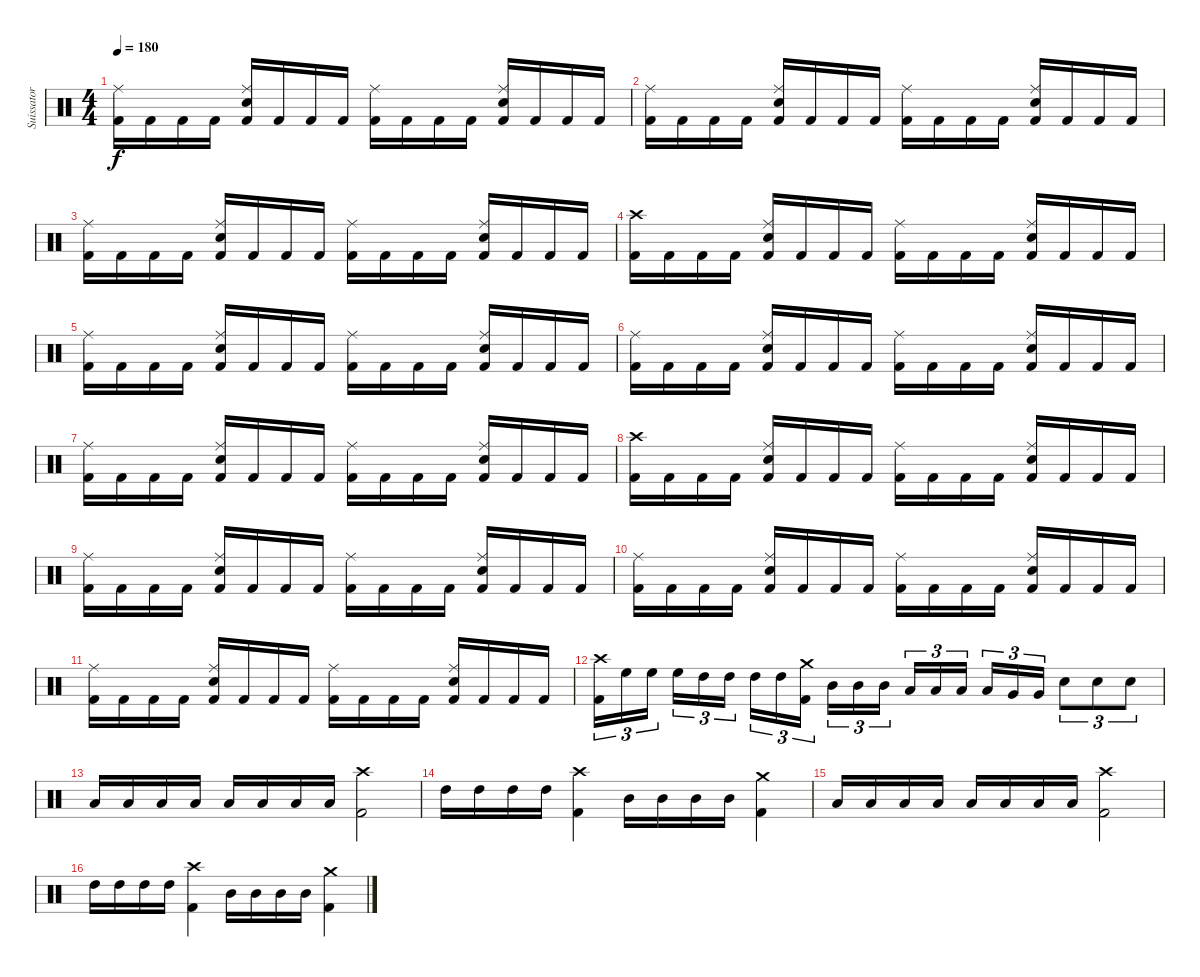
\track ("Suissator" "Suissator") {instrument percussion}
\staff {score}
\articulation defaults
\ts (4 4)
\tempo 180
\clef neutral
\ks c
("Kick (hit) 2" "Ride (middle)").16{dy f} "Kick (hit) 2".16 "Kick (hit) 2".16 "Kick (hit) 2".16 ("Kick (hit) 2" "Electric Snare (hit)" "Ride (middle)").16 "Kick (hit) 2".16 "Kick (hit) 2".16 "Kick (hit) 2".16 ("Kick (hit) 2" "Ride (middle)").16 "Kick (hit) 2".16 "Kick (hit) 2".16 "Kick (hit) 2".16 ("Kick (hit) 2" "Electric Snare (hit)" "Ride (middle)").16 "Kick (hit) 2".16 "Kick (hit) 2".16 "Kick (hit) 2".16 |
("Kick (hit) 2" "Ride (middle)").16 "Kick (hit) 2".16 "Kick (hit) 2".16 "Kick (hit) 2".16 ("Kick (hit) 2" "Electric Snare (hit)" "Ride (middle)").16 "Kick (hit) 2".16 "Kick (hit) 2".16 "Kick (hit) 2".16 ("Kick (hit) 2" "Ride (middle)").16 "Kick (hit) 2".16 "Kick (hit) 2".16 "Kick (hit) 2".16 ("Kick (hit) 2" "Electric Snare (hit)" "Ride (middle)").16 "Kick (hit) 2".16 "Kick (hit) 2".16 "Kick (hit) 2".16 |
("Kick (hit) 2" "Ride (middle)").16 "Kick (hit) 2".16 "Kick (hit) 2".16 "Kick (hit) 2".16 ("Kick (hit) 2" "Electric Snare (hit)" "Ride (middle)").16 "Kick (hit) 2".16 "Kick (hit) 2".16 "Kick (hit) 2".16 ("Kick (hit) 2" "Ride (middle)").16 "Kick (hit) 2".16 "Kick (hit) 2".16 "Kick (hit) 2".16 ("Kick (hit) 2" "Electric Snare (hit)" "Ride (middle)").16 "Kick (hit) 2".16 "Kick (hit) 2".16 "Kick (hit) 2".16 |
("Kick (hit) 2" "Crash high (hit)").16 "Kick (hit) 2".16 "Kick (hit) 2".16 "Kick (hit) 2".16 ("Kick (hit) 2" "Electric Snare (hit)" "Ride (middle)").16 "Kick (hit) 2".16 "Kick (hit) 2".16 "Kick (hit) 2".16 ("Kick (hit) 2" "Ride (middle)").16 "Kick (hit) 2".16 "Kick (hit) 2".16 "Kick (hit) 2".16 ("Kick (hit) 2" "Electric Snare (hit)" "Ride (middle)").16 "Kick (hit) 2".16 "Kick (hit) 2".16 "Kick (hit) 2".16 |
("Kick (hit) 2" "Ride (middle)").16 "Kick (hit) 2".16 "Kick (hit) 2".16 "Kick (hit) 2".16 ("Kick (hit) 2" "Electric Snare (hit)" "Ride (middle)").16 "Kick (hit) 2".16 "Kick (hit) 2".16 "Kick (hit) 2".16 ("Kick (hit) 2" "Ride (middle)").16 "Kick (hit) 2".16 "Kick (hit) 2".16 "Kick (hit) 2".16 ("Kick (hit) 2" "Electric Snare (hit)" "Ride (middle)").16 "Kick (hit) 2".16 "Kick (hit) 2".16 "Kick (hit) 2".16 |
("Kick (hit) 2" "Ride (middle)").16 "Kick (hit) 2".16 "Kick (hit) 2".16 "Kick (hit) 2".16 ("Kick (hit) 2" "Electric Snare (hit)" "Ride (middle)").16 "Kick (hit) 2".16 "Kick (hit) 2".16 "Kick (hit) 2".16 ("Kick (hit) 2" "Ride (middle)").16 "Kick (hit) 2".16 "Kick (hit) 2".16 "Kick (hit) 2".16 ("Kick (hit) 2" "Electric Snare (hit)" "Ride (middle)").16 "Kick (hit) 2".16 "Kick (hit) 2".16 "Kick (hit) 2".16 |
("Kick (hit) 2" "Ride (middle)").16 "Kick (hit) 2".16 "Kick (hit) 2".16 "Kick (hit) 2".16 ("Kick (hit) 2" "Electric Snare (hit)" "Ride (middle)").16 "Kick (hit) 2".16 "Kick (hit) 2".16 "Kick (hit) 2".16 ("Kick (hit) 2" "Ride (middle)").16 "Kick (hit) 2".16 "Kick (hit) 2".16 "Kick (hit) 2".16 ("Kick (hit) 2" "Electric Snare (hit)" "Ride (middle)").16 "Kick (hit) 2".16 "Kick (hit) 2".16 "Kick (hit) 2".16 |
("Kick (hit) 2" "Crash high (hit)").16 "Kick (hit) 2".16 "Kick (hit) 2".16 "Kick (hit) 2".16 ("Kick (hit) 2" "Electric Snare (hit)" "Ride (middle)").16 "Kick (hit) 2".16 "Kick (hit) 2".16 "Kick (hit) 2".16 ("Kick (hit) 2" "Ride (middle)").16 "Kick (hit) 2".16 "Kick (hit) 2".16 "Kick (hit) 2".16 ("Kick (hit) 2" "Electric Snare (hit)" "Ride (middle)").16 "Kick (hit) 2".16 "Kick (hit) 2".16 "Kick (hit) 2".16 |
("Kick (hit) 2" "Ride (middle)").16 "Kick (hit) 2".16 "Kick (hit) 2".16 "Kick (hit) 2".16 ("Kick (hit) 2" "Electric Snare (hit)" "Ride (middle)").16 "Kick (hit) 2".16 "Kick (hit) 2".16 "Kick (hit) 2".16 ("Kick (hit) 2" "Ride (middle)").16 "Kick (hit) 2".16 "Kick (hit) 2".16 "Kick (hit) 2".16 ("Kick (hit) 2" "Electric Snare (hit)" "Ride (middle)").16 "Kick (hit) 2".16 "Kick (hit) 2".16 "Kick (hit) 2".16 |
("Kick (hit) 2" "Ride (middle)").16 "Kick (hit) 2".16 "Kick (hit) 2".16 "Kick (hit) 2".16 ("Kick (hit) 2" "Electric Snare (hit)" "Ride (middle)").16 "Kick (hit) 2".16 "Kick (hit) 2".16 "Kick (hit) 2".16 ("Kick (hit) 2" "Ride (middle)").16 "Kick (hit) 2".16 "Kick (hit) 2".16 "Kick (hit) 2".16 ("Kick (hit) 2" "Electric Snare (hit)" "Ride (middle)").16 "Kick (hit) 2".16 "Kick (hit) 2".16 "Kick (hit) 2".16 |
("Kick (hit) 2" "Ride (middle)").16 "Kick (hit) 2".16 "Kick (hit) 2".16 "Kick (hit) 2".16 ("Kick (hit) 2" "Electric Snare (hit)" "Ride (middle)").16 "Kick (hit) 2".16 "Kick (hit) 2".16 "Kick (hit) 2".16 ("Kick (hit) 2" "Ride (middle)").16 "Kick (hit) 2".16 "Kick (hit) 2".16 "Kick (hit) 2".16 ("Kick (hit) 2" "Electric Snare (hit)" "Ride (middle)").16 "Kick (hit) 2".16 "Kick (hit) 2".16 "Kick (hit) 2".16 |
("Kick (hit) 2" "Crash high (hit)").16{tu (3 2)} "High Floor Tom (hit)".16{tu (3 2)} "High Floor Tom (hit)".16{tu (3 2)} "High Floor Tom (hit)".16{tu (3 2)} "High Tom (hit)".16{tu (3 2)} "High Tom (hit)".16{tu (3 2)} "High Tom (hit)".16{tu (3 2)} "High Tom (hit)".16{tu (3 2)} ("Kick (hit) 2" "Crash medium (hit)").16{tu (3 2)} "Mid Tom (hit)".16{tu (3 2)} "Mid Tom (hit)".16{tu (3 2)} "Mid Tom (hit)".16{tu (3 2)} "Low Tom (hit)".16{tu (3 2)} "Low Tom (hit)".16{tu (3 2)} "Low Tom (hit)".16{tu (3 2)} "Low Tom (hit)".16{tu (3 2)} "Very Low Tom (hit)".16{tu (3 2)} "Very Low Tom (hit)".16{tu (3 2)} "Electric Snare (hit)".8{tu (3 2)} "Electric Snare (hit)".8{tu (3 2)} "Electric Snare (hit)".8{tu (3 2)} |
"Low Tom (hit)".16 "Low Tom (hit)".16 "Low Tom (hit)".16 "Low Tom (hit)".16 "Low Tom (hit)".16 "Low Tom (hit)".16 "Low Tom (hit)".16 "Low Tom (hit)".16 ("Kick (hit) 2" "Crash high (hit)").2 |
"High Tom (hit)".16 "High Tom (hit)".16 "High Tom (hit)".16 "High Tom (hit)".16 ("Kick (hit) 2" "Crash high (hit)").4 "Mid Tom (hit)".16 "Mid Tom (hit)".16 "Mid Tom (hit)".16 "Mid Tom (hit)".16 ("Kick (hit) 2" "Crash medium (hit)").4 |
"Low Tom (hit)".16 "Low Tom (hit)".16 "Low Tom (hit)".16 "Low Tom (hit)".16 "Low Tom (hit)".16 "Low Tom (hit)".16 "Low Tom (hit)".16 "Low Tom (hit)".16 ("Kick (hit) 2" "Crash high (hit)").2 |
"High Tom (hit)".16 "High Tom (hit)".16 "High Tom (hit)".16 "High Tom (hit)".16 ("Kick (hit) 2" "Crash high (hit)").4 "Mid Tom (hit)".16 "Mid Tom (hit)".16 "Mid Tom (hit)".16 "Mid Tom (hit)".16 ("Kick (hit) 2" "Crash medium (hit)").4
